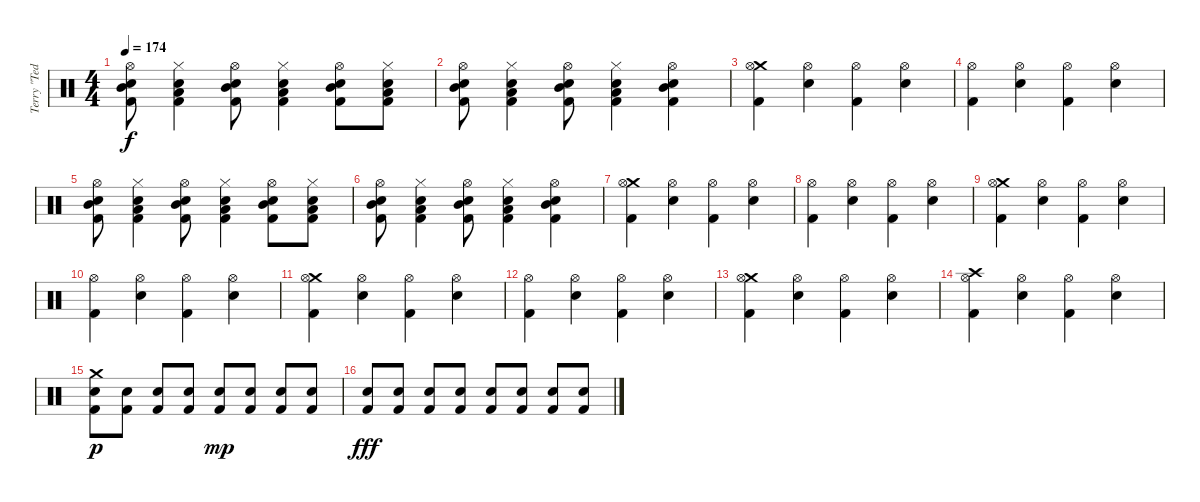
\track ("Terry \"Ted\" Bozzio" "Terry \"Ted") {instrument percussion}
\staff {score}
\articulation defaults
\ts (4 4)
\tempo 174
\clef neutral
\ks c
("Hi-Hat (open)" "Mid Tom (hit)" "Electric Snare (hit)" "Kick (hit) 2").8{dy f} ("Hi-Hat (closed)" "Low Tom (hit)" "Electric Snare (hit)" "Kick (hit) 2").4 ("Hi-Hat (open)" "Mid Tom (hit)" "Electric Snare (hit)" "Kick (hit) 2").8 ("Hi-Hat (closed)" "Low Tom (hit)" "Electric Snare (hit)" "Kick (hit) 2").4 ("Hi-Hat (open)" "Mid Tom (hit)" "Electric Snare (hit)" "Kick (hit) 2").8 ("Hi-Hat (closed)" "Low Tom (hit)" "Electric Snare (hit)" "Kick (hit) 2").8 |
("Hi-Hat (open)" "Mid Tom (hit)" "Electric Snare (hit)" "Kick (hit) 2").8 ("Hi-Hat (closed)" "Low Tom (hit)" "Electric Snare (hit)" "Kick (hit) 2").4 ("Hi-Hat (open)" "Mid Tom (hit)" "Electric Snare (hit)" "Kick (hit) 2").8 ("Hi-Hat (closed)" "Low Tom (hit)" "Electric Snare (hit)" "Kick (hit) 2").4 ("Hi-Hat (open)" "Mid Tom (hit)" "Electric Snare (hit)" "Kick (hit) 2").4 |
("Crash medium (hit)" "Hi-Hat (open)" "Kick (hit) 2").4 ("Hi-Hat (open)" "Electric Snare (hit)").4 ("Hi-Hat (open)" "Kick (hit) 2").4 ("Hi-Hat (open)" "Electric Snare (hit)").4 |
("Hi-Hat (open)" "Kick (hit) 2").4 ("Hi-Hat (open)" "Electric Snare (hit)").4 ("Hi-Hat (open)" "Kick (hit) 2").4 ("Hi-Hat (open)" "Electric Snare (hit)").4 |
("Hi-Hat (open)" "Mid Tom (hit)" "Electric Snare (hit)" "Kick (hit) 2").8 ("Hi-Hat (closed)" "Low Tom (hit)" "Electric Snare (hit)" "Kick (hit) 2").4 ("Hi-Hat (open)" "Mid Tom (hit)" "Electric Snare (hit)" "Kick (hit) 2").8 ("Hi-Hat (closed)" "Low Tom (hit)" "Electric Snare (hit)" "Kick (hit) 2").4 ("Hi-Hat (open)" "Mid Tom (hit)" "Electric Snare (hit)" "Kick (hit) 2").8 ("Hi-Hat (closed)" "Low Tom (hit)" "Electric Snare (hit)" "Kick (hit) 2").8 |
("Hi-Hat (open)" "Mid Tom (hit)" "Electric Snare (hit)" "Kick (hit) 2").8 ("Hi-Hat (closed)" "Low Tom (hit)" "Electric Snare (hit)" "Kick (hit) 2").4 ("Hi-Hat (open)" "Mid Tom (hit)" "Electric Snare (hit)" "Kick (hit) 2").8 ("Hi-Hat (closed)" "Low Tom (hit)" "Electric Snare (hit)" "Kick (hit) 2").4 ("Hi-Hat (open)" "Mid Tom (hit)" "Electric Snare (hit)" "Kick (hit) 2").4 |
("Crash medium (hit)" "Hi-Hat (open)" "Kick (hit) 2").4 ("Hi-Hat (open)" "Electric Snare (hit)").4 ("Hi-Hat (open)" "Kick (hit) 2").4 ("Hi-Hat (open)" "Electric Snare (hit)").4 |
("Hi-Hat (open)" "Kick (hit) 2").4 ("Hi-Hat (open)" "Electric Snare (hit)").4 ("Hi-Hat (open)" "Kick (hit) 2").4 ("Hi-Hat (open)" "Electric Snare (hit)").4 |
("Crash medium (hit)" "Hi-Hat (open)" "Kick (hit) 2").4 ("Hi-Hat (open)" "Electric Snare (hit)").4 ("Hi-Hat (open)" "Kick (hit) 2").4 ("Hi-Hat (open)" "Electric Snare (hit)").4 |
("Hi-Hat (open)" "Kick (hit) 2").4 ("Hi-Hat (open)" "Electric Snare (hit)").4 ("Hi-Hat (open)" "Kick (hit) 2").4 ("Hi-Hat (open)" "Electric Snare (hit)").4 |
("Crash medium (hit)" "Hi-Hat (open)" "Kick (hit) 2").4 ("Hi-Hat (open)" "Electric Snare (hit)").4 ("Hi-Hat (open)" "Kick (hit) 2").4 ("Hi-Hat (open)" "Electric Snare (hit)").4 |
("Hi-Hat (open)" "Kick (hit) 2").4 ("Hi-Hat (open)" "Electric Snare (hit)").4 ("Hi-Hat (open)" "Kick (hit) 2").4 ("Hi-Hat (open)" "Electric Snare (hit)").4 |
("Crash medium (hit)" "Hi-Hat (open)" "Kick (hit) 2").4 ("Hi-Hat (open)" "Electric Snare (hit)").4 ("Hi-Hat (open)" "Kick (hit) 2").4 ("Hi-Hat (open)" "Electric Snare (hit)").4 |
("Crash high (hit)" "Hi-Hat (open)" "Kick (hit) 2").4 ("Hi-Hat (open)" "Electric Snare (hit)").4 ("Hi-Hat (open)" "Kick (hit) 2").4 ("Hi-Hat (open)" "Electric Snare (hit)").4 |
("Crash medium (hit)" "Electric Snare (hit)" "Kick (hit) 2").8{dy p} ("Electric Snare (hit)" "Kick (hit) 2").8 ("Electric Snare (hit)" "Kick (hit) 2").8 ("Electric Snare (hit)" "Kick (hit) 2").8 ("Electric Snare (hit)" "Kick (hit) 2").8{dy mp} ("Electric Snare (hit)" "Kick (hit) 2").8 ("Electric Snare (hit)" "Kick (hit) 2").8 ("Electric Snare (hit)" "Kick (hit) 2").8 |
("Electric Snare (hit)" "Kick (hit) 2").8{dy fff} ("Electric Snare (hit)" "Kick (hit) 2").8 ("Electric Snare (hit)" "Kick (hit) 2").8 ("Electric Snare (hit)" "Kick (hit) 2").8 ("Electric Snare (hit)" "Kick (hit) 2").8 ("Electric Snare (hit)" "Kick (hit) 2").8 ("Electric Snare (hit)" "Kick (hit) 2").8 ("Electric Snare (hit)" "Kick (hit) 2").8
